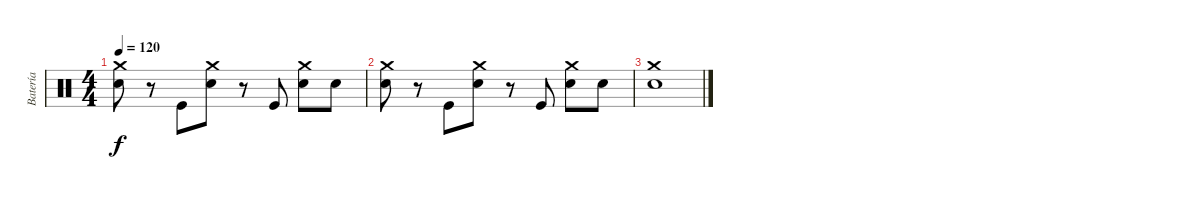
\track ("Batería" "Batería") {instrument percussion}
\staff {score}
\articulation defaults
\ts (4 4)
\tempo 120
\clef neutral
\ks c
("Crash medium (hit)" "Snare (hit) 2").8{dy f} r.8 "Kick (hit)".8 ("Crash medium (hit)" "Snare (hit) 2").8 r.8 "Kick (hit)".8 ("Crash medium (hit)" "Snare (hit) 2").8 "Snare (hit) 2".8 |
("Crash medium (hit)" "Snare (hit) 2").8 r.8 "Kick (hit)".8 ("Crash medium (hit)" "Snare (hit) 2").8 r.8 "Kick (hit)".8 ("Crash medium (hit)" "Snare (hit) 2").8 "Snare (hit) 2".8 |
("Crash medium (hit)" "Snare (hit) 2").1
